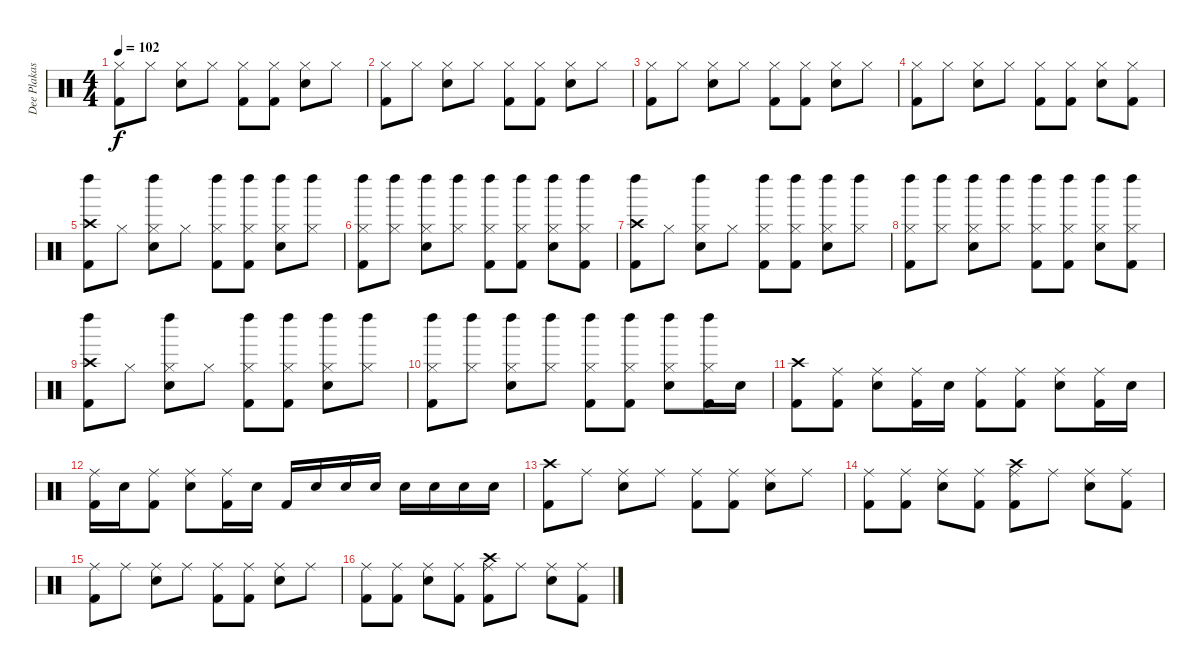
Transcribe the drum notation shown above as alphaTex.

\track ("Dee Plakas" "Dee Plakas") {instrument percussion}
\staff {score}
\articulation defaults
\ts (4 4)
\tempo 102
\clef neutral
\ks c
("Hi-Hat (closed)" "Kick (hit) 2").8{dy f} "Hi-Hat (closed)".8 ("Hi-Hat (closed)" "Snare (hit) 2").8 "Hi-Hat (closed)".8 ("Hi-Hat (closed)" "Kick (hit) 2").8 ("Hi-Hat (closed)" "Kick (hit) 2").8 ("Hi-Hat (closed)" "Snare (hit) 2").8 "Hi-Hat (closed)".8 |
("Hi-Hat (closed)" "Kick (hit) 2").8 "Hi-Hat (closed)".8 ("Hi-Hat (closed)" "Snare (hit) 2").8 "Hi-Hat (closed)".8 ("Hi-Hat (closed)" "Kick (hit) 2").8 ("Hi-Hat (closed)" "Kick (hit) 2").8 ("Hi-Hat (closed)" "Snare (hit) 2").8 "Hi-Hat (closed)".8 |
("Hi-Hat (closed)" "Kick (hit) 2").8 "Hi-Hat (closed)".8 ("Hi-Hat (closed)" "Snare (hit) 2").8 "Hi-Hat (closed)".8 ("Hi-Hat (closed)" "Kick (hit) 2").8 ("Hi-Hat (closed)" "Kick (hit) 2").8 ("Hi-Hat (closed)" "Snare (hit) 2").8 "Hi-Hat (closed)".8 |
("Hi-Hat (closed)" "Kick (hit) 2").8 "Hi-Hat (closed)".8 ("Hi-Hat (closed)" "Snare (hit) 2").8 "Hi-Hat (closed)".8 ("Hi-Hat (closed)" "Kick (hit) 2").8 ("Hi-Hat (closed)" "Kick (hit) 2").8 ("Hi-Hat (closed)" "Snare (hit) 2").8 ("Hi-Hat (closed)" "Kick (hit) 2").8 |
("Crash high (hit)" "Left Maraca (hit)" "Kick (hit) 2").8 "Hi-Hat (closed)".8 ("Hi-Hat (closed)" "Left Maraca (hit)" "Snare (hit) 2").8 "Hi-Hat (closed)".8 ("Hi-Hat (closed)" "Left Maraca (hit)" "Kick (hit) 2").8 ("Hi-Hat (closed)" "Left Maraca (hit)" "Kick (hit) 2").8 ("Hi-Hat (closed)" "Left Maraca (hit)" "Snare (hit) 2").8 ("Hi-Hat (closed)" "Left Maraca (hit)").8 |
("Hi-Hat (closed)" "Left Maraca (hit)" "Kick (hit) 2").8 ("Hi-Hat (closed)" "Left Maraca (hit)").8 ("Hi-Hat (closed)" "Left Maraca (hit)" "Snare (hit) 2").8 ("Hi-Hat (closed)" "Left Maraca (hit)").8 ("Hi-Hat (closed)" "Left Maraca (hit)" "Kick (hit) 2").8 ("Hi-Hat (closed)" "Left Maraca (hit)" "Kick (hit) 2").8 ("Hi-Hat (closed)" "Left Maraca (hit)" "Snare (hit) 2").8 ("Hi-Hat (closed)" "Left Maraca (hit)" "Kick (hit) 2").8 |
("Crash high (hit)" "Left Maraca (hit)" "Kick (hit) 2").8 "Hi-Hat (closed)".8 ("Hi-Hat (closed)" "Left Maraca (hit)" "Snare (hit) 2").8 "Hi-Hat (closed)".8 ("Hi-Hat (closed)" "Left Maraca (hit)" "Kick (hit) 2").8 ("Hi-Hat (closed)" "Left Maraca (hit)" "Kick (hit) 2").8 ("Hi-Hat (closed)" "Left Maraca (hit)" "Snare (hit) 2").8 ("Hi-Hat (closed)" "Left Maraca (hit)").8 |
("Hi-Hat (closed)" "Left Maraca (hit)" "Kick (hit) 2").8 ("Hi-Hat (closed)" "Left Maraca (hit)").8 ("Hi-Hat (closed)" "Left Maraca (hit)" "Snare (hit) 2").8 ("Hi-Hat (closed)" "Left Maraca (hit)").8 ("Hi-Hat (closed)" "Left Maraca (hit)" "Kick (hit) 2").8 ("Hi-Hat (closed)" "Left Maraca (hit)" "Kick (hit) 2").8 ("Hi-Hat (closed)" "Left Maraca (hit)" "Snare (hit) 2").8 ("Hi-Hat (closed)" "Left Maraca (hit)" "Kick (hit) 2").8 |
("Crash high (hit)" "Left Maraca (hit)" "Kick (hit) 2").8 "Hi-Hat (closed)".8 ("Hi-Hat (closed)" "Left Maraca (hit)" "Snare (hit) 2").8 "Hi-Hat (closed)".8 ("Hi-Hat (closed)" "Left Maraca (hit)" "Kick (hit) 2").8 ("Hi-Hat (closed)" "Left Maraca (hit)" "Kick (hit) 2").8 ("Hi-Hat (closed)" "Left Maraca (hit)" "Snare (hit) 2").8 ("Hi-Hat (closed)" "Left Maraca (hit)").8 |
("Hi-Hat (closed)" "Left Maraca (hit)" "Kick (hit) 2").8 ("Hi-Hat (closed)" "Left Maraca (hit)").8 ("Hi-Hat (closed)" "Left Maraca (hit)" "Snare (hit) 2").8 ("Hi-Hat (closed)" "Left Maraca (hit)").8 ("Hi-Hat (closed)" "Left Maraca (hit)" "Kick (hit) 2").8 ("Hi-Hat (closed)" "Left Maraca (hit)" "Kick (hit) 2").8 ("Hi-Hat (closed)" "Left Maraca (hit)" "Snare (hit) 2").8 ("Hi-Hat (closed)" "Left Maraca (hit)" "Kick (hit) 2").16 "Snare (hit) 2".16 |
("Crash high (hit)" "Kick (hit) 2").8 ("Ride (middle)" "Kick (hit) 2").8 ("Ride (middle)" "Snare (hit) 2").8 ("Ride (middle)" "Kick (hit) 2").16 "Snare (hit) 2".16 ("Ride (middle)" "Kick (hit) 2").8 ("Ride (middle)" "Kick (hit) 2").8 ("Ride (middle)" "Snare (hit) 2").8 ("Ride (middle)" "Kick (hit) 2").16 "Snare (hit) 2".16 |
("Ride (middle)" "Kick (hit) 2").16 "Snare (hit) 2".16 ("Ride (middle)" "Kick (hit) 2").8 ("Ride (middle)" "Snare (hit) 2").8 ("Ride (middle)" "Kick (hit) 2").16 "Snare (hit) 2".16 "Kick (hit) 2".16 "Snare (hit) 2".16 "Snare (hit) 2".16 "Snare (hit) 2".16 "Snare (hit) 2".16 "Snare (hit) 2".16 "Snare (hit) 2".16 "Snare (hit) 2".16 |
("Crash high (hit)" "Kick (hit) 2").8 "Ride (middle)".8 ("Ride (middle)" "Snare (hit) 2").8 "Ride (middle)".8 ("Ride (middle)" "Kick (hit) 2").8 ("Ride (middle)" "Kick (hit) 2").8 ("Ride (middle)" "Snare (hit) 2").8 "Ride (middle)".8 |
("Ride (middle)" "Kick (hit) 2").8 ("Ride (middle)" "Kick (hit) 2").8 ("Ride (middle)" "Snare (hit) 2").8 ("Ride (middle)" "Kick (hit) 2").8 ("Ride (middle)" "Crash high (hit)" "Kick (hit) 2").8 "Ride (middle)".8 ("Ride (middle)" "Snare (hit) 2").8 ("Ride (middle)" "Kick (hit) 2").8 |
("Ride (middle)" "Kick (hit) 2").8 "Ride (middle)".8 ("Ride (middle)" "Snare (hit) 2").8 "Ride (middle)".8 ("Ride (middle)" "Kick (hit) 2").8 ("Ride (middle)" "Kick (hit) 2").8 ("Ride (middle)" "Snare (hit) 2").8 "Ride (middle)".8 |
("Ride (middle)" "Kick (hit) 2").8 ("Ride (middle)" "Kick (hit) 2").8 ("Ride (middle)" "Snare (hit) 2").8 ("Ride (middle)" "Kick (hit) 2").8 ("Ride (middle)" "Crash high (hit)" "Kick (hit) 2").8 "Ride (middle)".8 ("Ride (middle)" "Snare (hit) 2").8 ("Ride (middle)" "Kick (hit) 2").8
